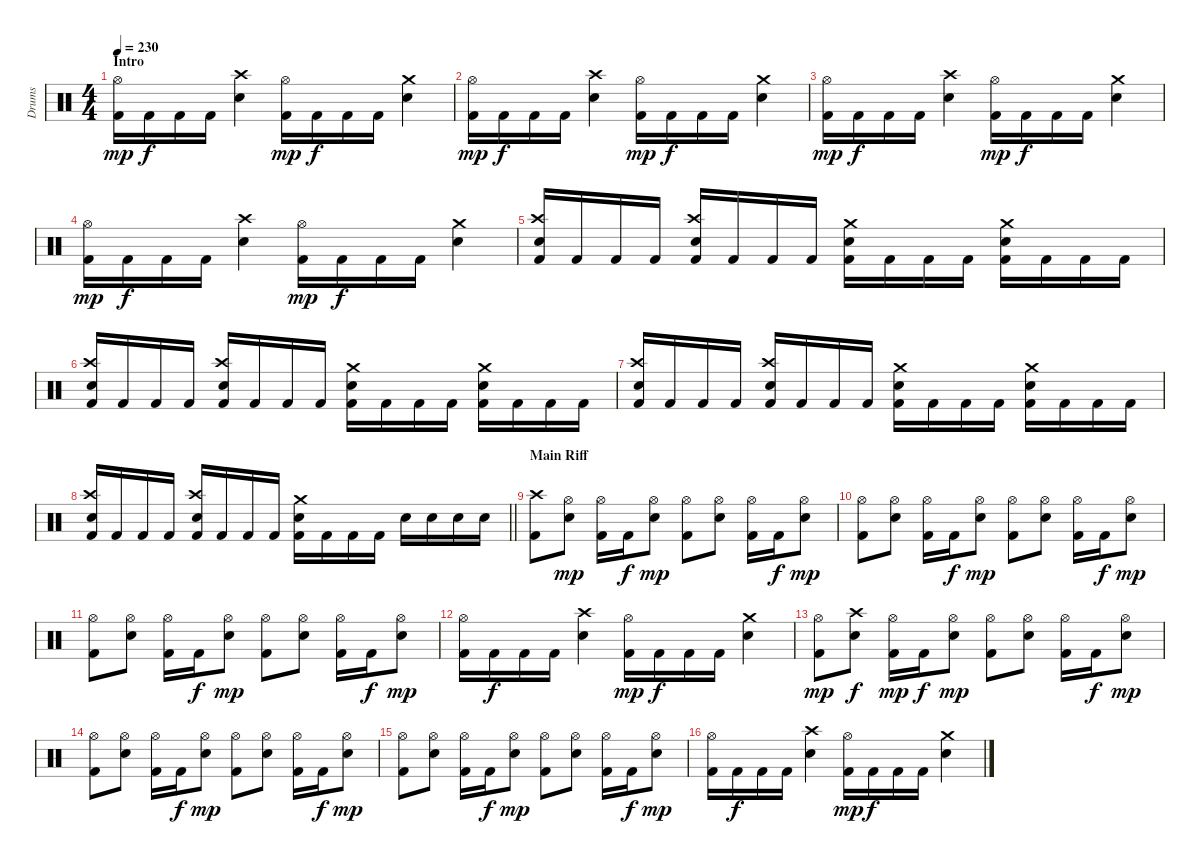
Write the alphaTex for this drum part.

\track ("Drums" "Drums") {instrument percussion}
\staff {score}
\articulation defaults
\ts (4 4)
\section ("" "Intro")
\tempo 230
\clef neutral
\ks c
("Hi-Hat (open)" "Kick (hit) 2").16{dy mp} "Kick (hit) 2".16{dy f} "Kick (hit) 2".16 "Kick (hit) 2".16 ("Crash high (hit)" "Snare (hit) 2").4 ("Hi-Hat (open)" "Kick (hit) 2").16{dy mp} "Kick (hit) 2".16{dy f} "Kick (hit) 2".16 "Kick (hit) 2".16 ("Crash medium (hit)" "Snare (hit) 2").4 |
("Hi-Hat (open)" "Kick (hit) 2").16{dy mp} "Kick (hit) 2".16{dy f} "Kick (hit) 2".16 "Kick (hit) 2".16 ("Crash high (hit)" "Snare (hit) 2").4 ("Hi-Hat (open)" "Kick (hit) 2").16{dy mp} "Kick (hit) 2".16{dy f} "Kick (hit) 2".16 "Kick (hit) 2".16 ("Crash medium (hit)" "Snare (hit) 2").4 |
("Hi-Hat (open)" "Kick (hit) 2").16{dy mp} "Kick (hit) 2".16{dy f} "Kick (hit) 2".16 "Kick (hit) 2".16 ("Crash high (hit)" "Snare (hit) 2").4 ("Hi-Hat (open)" "Kick (hit) 2").16{dy mp} "Kick (hit) 2".16{dy f} "Kick (hit) 2".16 "Kick (hit) 2".16 ("Crash medium (hit)" "Snare (hit) 2").4 |
("Hi-Hat (open)" "Kick (hit) 2").16{dy mp} "Kick (hit) 2".16{dy f} "Kick (hit) 2".16 "Kick (hit) 2".16 ("Crash high (hit)" "Snare (hit) 2").4 ("Hi-Hat (open)" "Kick (hit) 2").16{dy mp} "Kick (hit) 2".16{dy f} "Kick (hit) 2".16 "Kick (hit) 2".16 ("Crash medium (hit)" "Snare (hit) 2").4 |
("Crash high (hit)" "Snare (hit) 2" "Kick (hit) 2").16 "Kick (hit) 2".16 "Kick (hit) 2".16 "Kick (hit) 2".16 ("Crash high (hit)" "Snare (hit) 2" "Kick (hit) 2").16 "Kick (hit) 2".16 "Kick (hit) 2".16 "Kick (hit) 2".16 ("Crash medium (hit)" "Snare (hit) 2" "Kick (hit) 2").16 "Kick (hit) 2".16 "Kick (hit) 2".16 "Kick (hit) 2".16 ("Crash medium (hit)" "Snare (hit) 2" "Kick (hit) 2").16 "Kick (hit) 2".16 "Kick (hit) 2".16 "Kick (hit) 2".16 |
("Crash high (hit)" "Snare (hit) 2" "Kick (hit) 2").16 "Kick (hit) 2".16 "Kick (hit) 2".16 "Kick (hit) 2".16 ("Crash high (hit)" "Snare (hit) 2" "Kick (hit) 2").16 "Kick (hit) 2".16 "Kick (hit) 2".16 "Kick (hit) 2".16 ("Crash medium (hit)" "Snare (hit) 2" "Kick (hit) 2").16 "Kick (hit) 2".16 "Kick (hit) 2".16 "Kick (hit) 2".16 ("Crash medium (hit)" "Snare (hit) 2" "Kick (hit) 2").16 "Kick (hit) 2".16 "Kick (hit) 2".16 "Kick (hit) 2".16 |
("Crash high (hit)" "Snare (hit) 2" "Kick (hit) 2").16 "Kick (hit) 2".16 "Kick (hit) 2".16 "Kick (hit) 2".16 ("Crash high (hit)" "Snare (hit) 2" "Kick (hit) 2").16 "Kick (hit) 2".16 "Kick (hit) 2".16 "Kick (hit) 2".16 ("Crash medium (hit)" "Snare (hit) 2" "Kick (hit) 2").16 "Kick (hit) 2".16 "Kick (hit) 2".16 "Kick (hit) 2".16 ("Crash medium (hit)" "Snare (hit) 2" "Kick (hit) 2").16 "Kick (hit) 2".16 "Kick (hit) 2".16 "Kick (hit) 2".16 |
\barLineRight lightlight
("Crash high (hit)" "Snare (hit) 2" "Kick (hit) 2").16 "Kick (hit) 2".16 "Kick (hit) 2".16 "Kick (hit) 2".16 ("Crash high (hit)" "Snare (hit) 2" "Kick (hit) 2").16 "Kick (hit) 2".16 "Kick (hit) 2".16 "Kick (hit) 2".16 ("Crash medium (hit)" "Snare (hit) 2" "Kick (hit) 2").16 "Kick (hit) 2".16 "Kick (hit) 2".16 "Kick (hit) 2".16 "Snare (hit) 2".16 "Snare (hit) 2".16 "Snare (hit) 2".16 "Snare (hit) 2".16 |
\section ("" "Main Riff")
("Crash high (hit)" "Kick (hit) 2").8 ("Hi-Hat (open)" "Snare (hit) 2").8{dy mp} ("Hi-Hat (open)" "Kick (hit) 2").16 "Kick (hit) 2".16{dy f} ("Hi-Hat (open)" "Snare (hit) 2").8{dy mp} ("Hi-Hat (open)" "Kick (hit) 2").8 ("Hi-Hat (open)" "Snare (hit) 2").8 ("Hi-Hat (open)" "Kick (hit) 2").16 "Kick (hit) 2".16{dy f} ("Hi-Hat (open)" "Snare (hit) 2").8{dy mp} |
("Hi-Hat (open)" "Kick (hit) 2").8 ("Hi-Hat (open)" "Snare (hit) 2").8 ("Hi-Hat (open)" "Kick (hit) 2").16 "Kick (hit) 2".16{dy f} ("Hi-Hat (open)" "Snare (hit) 2").8{dy mp} ("Hi-Hat (open)" "Kick (hit) 2").8 ("Hi-Hat (open)" "Snare (hit) 2").8 ("Hi-Hat (open)" "Kick (hit) 2").16 "Kick (hit) 2".16{dy f} ("Hi-Hat (open)" "Snare (hit) 2").8{dy mp} |
("Hi-Hat (open)" "Kick (hit) 2").8 ("Hi-Hat (open)" "Snare (hit) 2").8 ("Hi-Hat (open)" "Kick (hit) 2").16 "Kick (hit) 2".16{dy f} ("Hi-Hat (open)" "Snare (hit) 2").8{dy mp} ("Hi-Hat (open)" "Kick (hit) 2").8 ("Hi-Hat (open)" "Snare (hit) 2").8 ("Hi-Hat (open)" "Kick (hit) 2").16 "Kick (hit) 2".16{dy f} ("Hi-Hat (open)" "Snare (hit) 2").8{dy mp} |
("Hi-Hat (open)" "Kick (hit) 2").16 "Kick (hit) 2".16{dy f} "Kick (hit) 2".16 "Kick (hit) 2".16 ("Crash high (hit)" "Snare (hit) 2").4 ("Hi-Hat (open)" "Kick (hit) 2").16{dy mp} "Kick (hit) 2".16{dy f} "Kick (hit) 2".16 "Kick (hit) 2".16 ("Crash medium (hit)" "Snare (hit) 2").4 |
("Hi-Hat (open)" "Kick (hit) 2").8{dy mp} ("Crash high (hit)" "Snare (hit) 2").8{dy f} ("Hi-Hat (open)" "Kick (hit) 2").16{dy mp} "Kick (hit) 2".16{dy f} ("Hi-Hat (open)" "Snare (hit) 2").8{dy mp} ("Hi-Hat (open)" "Kick (hit) 2").8 ("Hi-Hat (open)" "Snare (hit) 2").8 ("Hi-Hat (open)" "Kick (hit) 2").16 "Kick (hit) 2".16{dy f} ("Hi-Hat (open)" "Snare (hit) 2").8{dy mp} |
("Hi-Hat (open)" "Kick (hit) 2").8 ("Hi-Hat (open)" "Snare (hit) 2").8 ("Hi-Hat (open)" "Kick (hit) 2").16 "Kick (hit) 2".16{dy f} ("Hi-Hat (open)" "Snare (hit) 2").8{dy mp} ("Hi-Hat (open)" "Kick (hit) 2").8 ("Hi-Hat (open)" "Snare (hit) 2").8 ("Hi-Hat (open)" "Kick (hit) 2").16 "Kick (hit) 2".16{dy f} ("Hi-Hat (open)" "Snare (hit) 2").8{dy mp} |
("Hi-Hat (open)" "Kick (hit) 2").8 ("Hi-Hat (open)" "Snare (hit) 2").8 ("Hi-Hat (open)" "Kick (hit) 2").16 "Kick (hit) 2".16{dy f} ("Hi-Hat (open)" "Snare (hit) 2").8{dy mp} ("Hi-Hat (open)" "Kick (hit) 2").8 ("Hi-Hat (open)" "Snare (hit) 2").8 ("Hi-Hat (open)" "Kick (hit) 2").16 "Kick (hit) 2".16{dy f} ("Hi-Hat (open)" "Snare (hit) 2").8{dy mp} |
("Hi-Hat (open)" "Kick (hit) 2").16 "Kick (hit) 2".16{dy f} "Kick (hit) 2".16 "Kick (hit) 2".16 ("Crash high (hit)" "Snare (hit) 2").4 ("Hi-Hat (open)" "Kick (hit) 2").16{dy mp} "Kick (hit) 2".16{dy f} "Kick (hit) 2".16 "Kick (hit) 2".16 ("Crash medium (hit)" "Snare (hit) 2").4
